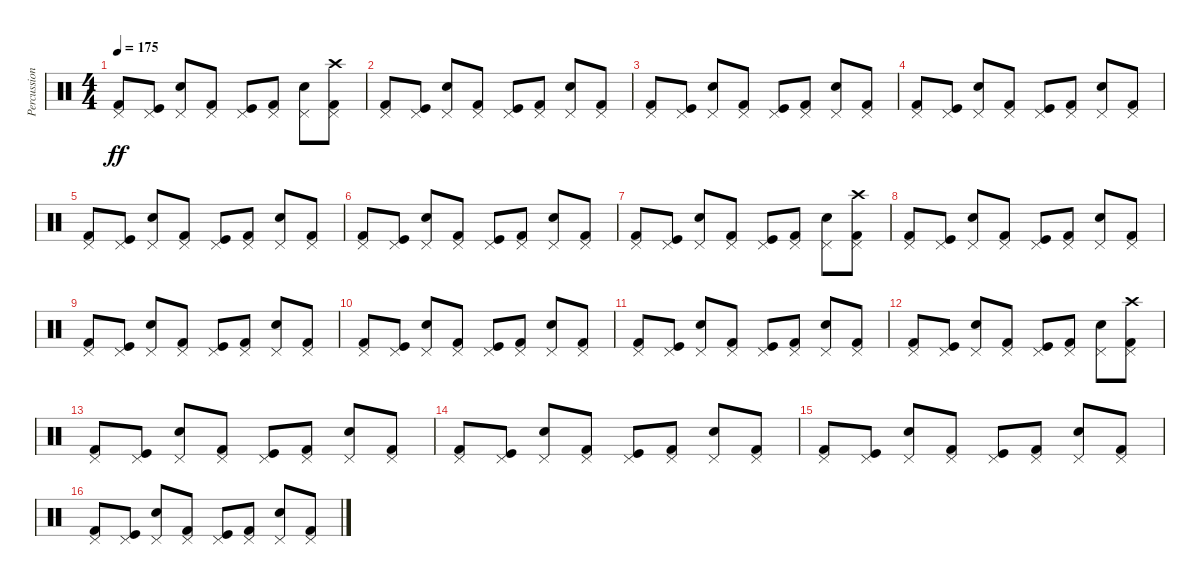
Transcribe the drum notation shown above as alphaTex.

\track ("Percussion (Karlo Žuliæ)" "Percussion") {instrument percussion}
\staff {score}
\articulation defaults
\ts (4 4)
\tempo 175
\clef neutral
\ks c
("Pedal Hi-Hat (hit)" "Kick (hit) 2").8{dy ff} ("Pedal Hi-Hat (hit)" "Kick (hit)").8 ("Pedal Hi-Hat (hit)" "Snare (hit) 2").8 ("Pedal Hi-Hat (hit)" "Kick (hit) 2").8 ("Pedal Hi-Hat (hit)" "Kick (hit)").8 ("Pedal Hi-Hat (hit)" "Kick (hit) 2").8 ("Pedal Hi-Hat (hit)" "Snare (hit) 2").8 ("Pedal Hi-Hat (hit)" "Kick (hit) 2" "Crash high (hit)").8 |
("Pedal Hi-Hat (hit)" "Kick (hit) 2").8 ("Pedal Hi-Hat (hit)" "Kick (hit)").8 ("Pedal Hi-Hat (hit)" "Snare (hit) 2").8 ("Pedal Hi-Hat (hit)" "Kick (hit) 2").8 ("Pedal Hi-Hat (hit)" "Kick (hit)").8 ("Pedal Hi-Hat (hit)" "Kick (hit) 2").8 ("Pedal Hi-Hat (hit)" "Snare (hit) 2").8 ("Pedal Hi-Hat (hit)" "Kick (hit) 2").8 |
("Pedal Hi-Hat (hit)" "Kick (hit) 2").8 ("Pedal Hi-Hat (hit)" "Kick (hit)").8 ("Pedal Hi-Hat (hit)" "Snare (hit) 2").8 ("Pedal Hi-Hat (hit)" "Kick (hit) 2").8 ("Pedal Hi-Hat (hit)" "Kick (hit)").8 ("Pedal Hi-Hat (hit)" "Kick (hit) 2").8 ("Pedal Hi-Hat (hit)" "Snare (hit) 2").8 ("Pedal Hi-Hat (hit)" "Kick (hit) 2").8 |
("Pedal Hi-Hat (hit)" "Kick (hit) 2").8 ("Pedal Hi-Hat (hit)" "Kick (hit)").8 ("Pedal Hi-Hat (hit)" "Snare (hit) 2").8 ("Pedal Hi-Hat (hit)" "Kick (hit) 2").8 ("Pedal Hi-Hat (hit)" "Kick (hit)").8 ("Pedal Hi-Hat (hit)" "Kick (hit) 2").8 ("Pedal Hi-Hat (hit)" "Snare (hit) 2").8 ("Pedal Hi-Hat (hit)" "Kick (hit) 2").8 |
("Pedal Hi-Hat (hit)" "Kick (hit) 2").8 ("Pedal Hi-Hat (hit)" "Kick (hit)").8 ("Pedal Hi-Hat (hit)" "Snare (hit) 2").8 ("Pedal Hi-Hat (hit)" "Kick (hit) 2").8 ("Pedal Hi-Hat (hit)" "Kick (hit)").8 ("Pedal Hi-Hat (hit)" "Kick (hit) 2").8 ("Pedal Hi-Hat (hit)" "Snare (hit) 2").8 ("Pedal Hi-Hat (hit)" "Kick (hit) 2").8 |
("Pedal Hi-Hat (hit)" "Kick (hit) 2").8 ("Pedal Hi-Hat (hit)" "Kick (hit)").8 ("Pedal Hi-Hat (hit)" "Snare (hit) 2").8 ("Pedal Hi-Hat (hit)" "Kick (hit) 2").8 ("Pedal Hi-Hat (hit)" "Kick (hit)").8 ("Pedal Hi-Hat (hit)" "Kick (hit) 2").8 ("Pedal Hi-Hat (hit)" "Snare (hit) 2").8 ("Pedal Hi-Hat (hit)" "Kick (hit) 2").8 |
("Pedal Hi-Hat (hit)" "Kick (hit) 2").8 ("Pedal Hi-Hat (hit)" "Kick (hit)").8 ("Pedal Hi-Hat (hit)" "Snare (hit) 2").8 ("Pedal Hi-Hat (hit)" "Kick (hit) 2").8 ("Pedal Hi-Hat (hit)" "Kick (hit)").8 ("Pedal Hi-Hat (hit)" "Kick (hit) 2").8 ("Pedal Hi-Hat (hit)" "Snare (hit) 2").8 ("Pedal Hi-Hat (hit)" "Kick (hit) 2" "Crash high (hit)").8 |
("Pedal Hi-Hat (hit)" "Kick (hit) 2").8 ("Pedal Hi-Hat (hit)" "Kick (hit)").8 ("Pedal Hi-Hat (hit)" "Snare (hit) 2").8 ("Pedal Hi-Hat (hit)" "Kick (hit) 2").8 ("Pedal Hi-Hat (hit)" "Kick (hit)").8 ("Pedal Hi-Hat (hit)" "Kick (hit) 2").8 ("Pedal Hi-Hat (hit)" "Snare (hit) 2").8 ("Pedal Hi-Hat (hit)" "Kick (hit) 2").8 |
("Pedal Hi-Hat (hit)" "Kick (hit) 2").8 ("Pedal Hi-Hat (hit)" "Kick (hit)").8 ("Pedal Hi-Hat (hit)" "Snare (hit) 2").8 ("Pedal Hi-Hat (hit)" "Kick (hit) 2").8 ("Pedal Hi-Hat (hit)" "Kick (hit)").8 ("Pedal Hi-Hat (hit)" "Kick (hit) 2").8 ("Pedal Hi-Hat (hit)" "Snare (hit) 2").8 ("Pedal Hi-Hat (hit)" "Kick (hit) 2").8 |
("Pedal Hi-Hat (hit)" "Kick (hit) 2").8 ("Pedal Hi-Hat (hit)" "Kick (hit)").8 ("Pedal Hi-Hat (hit)" "Snare (hit) 2").8 ("Pedal Hi-Hat (hit)" "Kick (hit) 2").8 ("Pedal Hi-Hat (hit)" "Kick (hit)").8 ("Pedal Hi-Hat (hit)" "Kick (hit) 2").8 ("Pedal Hi-Hat (hit)" "Snare (hit) 2").8 ("Pedal Hi-Hat (hit)" "Kick (hit) 2").8 |
("Pedal Hi-Hat (hit)" "Kick (hit) 2").8 ("Pedal Hi-Hat (hit)" "Kick (hit)").8 ("Pedal Hi-Hat (hit)" "Snare (hit) 2").8 ("Pedal Hi-Hat (hit)" "Kick (hit) 2").8 ("Pedal Hi-Hat (hit)" "Kick (hit)").8 ("Pedal Hi-Hat (hit)" "Kick (hit) 2").8 ("Pedal Hi-Hat (hit)" "Snare (hit) 2").8 ("Pedal Hi-Hat (hit)" "Kick (hit) 2").8 |
("Pedal Hi-Hat (hit)" "Kick (hit) 2").8 ("Pedal Hi-Hat (hit)" "Kick (hit)").8 ("Pedal Hi-Hat (hit)" "Snare (hit) 2").8 ("Pedal Hi-Hat (hit)" "Kick (hit) 2").8 ("Pedal Hi-Hat (hit)" "Kick (hit)").8 ("Pedal Hi-Hat (hit)" "Kick (hit) 2").8 ("Pedal Hi-Hat (hit)" "Snare (hit) 2").8 ("Pedal Hi-Hat (hit)" "Kick (hit) 2" "Crash high (hit)").8 |
("Pedal Hi-Hat (hit)" "Kick (hit) 2").8 ("Pedal Hi-Hat (hit)" "Kick (hit)").8 ("Pedal Hi-Hat (hit)" "Snare (hit) 2").8 ("Pedal Hi-Hat (hit)" "Kick (hit) 2").8 ("Pedal Hi-Hat (hit)" "Kick (hit)").8 ("Pedal Hi-Hat (hit)" "Kick (hit) 2").8 ("Pedal Hi-Hat (hit)" "Snare (hit) 2").8 ("Pedal Hi-Hat (hit)" "Kick (hit) 2").8 |
("Pedal Hi-Hat (hit)" "Kick (hit) 2").8 ("Pedal Hi-Hat (hit)" "Kick (hit)").8 ("Pedal Hi-Hat (hit)" "Snare (hit) 2").8 ("Pedal Hi-Hat (hit)" "Kick (hit) 2").8 ("Pedal Hi-Hat (hit)" "Kick (hit)").8 ("Pedal Hi-Hat (hit)" "Kick (hit) 2").8 ("Pedal Hi-Hat (hit)" "Snare (hit) 2").8 ("Pedal Hi-Hat (hit)" "Kick (hit) 2").8 |
("Pedal Hi-Hat (hit)" "Kick (hit) 2").8 ("Pedal Hi-Hat (hit)" "Kick (hit)").8 ("Pedal Hi-Hat (hit)" "Snare (hit) 2").8 ("Pedal Hi-Hat (hit)" "Kick (hit) 2").8 ("Pedal Hi-Hat (hit)" "Kick (hit)").8 ("Pedal Hi-Hat (hit)" "Kick (hit) 2").8 ("Pedal Hi-Hat (hit)" "Snare (hit) 2").8 ("Pedal Hi-Hat (hit)" "Kick (hit) 2").8 |
("Pedal Hi-Hat (hit)" "Kick (hit) 2").8 ("Pedal Hi-Hat (hit)" "Kick (hit)").8 ("Pedal Hi-Hat (hit)" "Snare (hit) 2").8 ("Pedal Hi-Hat (hit)" "Kick (hit) 2").8 ("Pedal Hi-Hat (hit)" "Kick (hit)").8 ("Pedal Hi-Hat (hit)" "Kick (hit) 2").8 ("Pedal Hi-Hat (hit)" "Snare (hit) 2").8 ("Pedal Hi-Hat (hit)" "Kick (hit) 2").8
